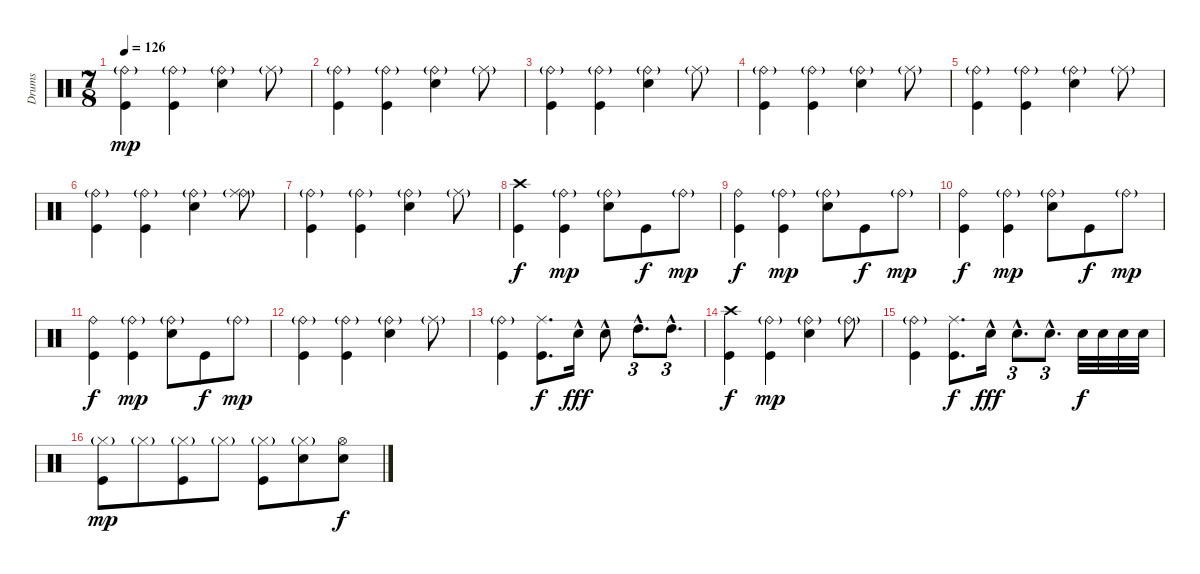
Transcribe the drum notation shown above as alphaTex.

\track ("Drums" "Drums") {instrument percussion}
\staff {score}
\articulation defaults
\ts (7 8)
\tempo 126
\clef neutral
\ks c
("Ride (bell)"{g} "Kick (hit)").4{dy mp} ("Ride (bell)"{g} "Kick (hit)").4 ("Ride (bell)"{g} "Snare (hit) 2").4 "Ride (middle)"{g}.8 |
("Ride (bell)"{g} "Kick (hit)").4 ("Ride (bell)"{g} "Kick (hit)").4 ("Ride (bell)"{g} "Snare (hit) 2").4 "Ride (middle)"{g}.8 |
("Ride (bell)"{g} "Kick (hit)").4 ("Ride (bell)"{g} "Kick (hit)").4 ("Ride (bell)"{g} "Snare (hit) 2").4 "Ride (middle)"{g}.8 |
("Ride (bell)"{g} "Kick (hit)").4 ("Ride (bell)"{g} "Kick (hit)").4 ("Ride (bell)"{g} "Snare (hit) 2").4 "Ride (middle)"{g}.8 |
("Ride (bell)"{g} "Kick (hit)").4 ("Ride (bell)"{g} "Kick (hit)").4 ("Ride (bell)"{g} "Snare (hit) 2").4 "Ride (middle)"{g}.8 |
("Ride (bell)"{g} "Kick (hit)").4 ("Ride (bell)"{g} "Kick (hit)").4 ("Ride (bell)"{g} "Snare (hit) 2").4 ("Ride (bell)"{g} "Ride (middle)").8 |
("Ride (bell)"{g} "Kick (hit)").4 ("Ride (bell)"{g} "Kick (hit)").4 ("Ride (bell)"{g} "Snare (hit) 2").4 "Ride (middle)"{g}.8 |
("Crash high (hit)" "Kick (hit)").4{dy f} ("Ride (bell)"{g} "Kick (hit)").4{dy mp} ("Ride (bell)"{g} "Snare (hit) 2").8 "Kick (hit)".8{dy f} "Ride (bell)"{g}.8{dy mp} |
("Ride (bell)" "Kick (hit)").4{dy f} ("Ride (bell)"{g} "Kick (hit)").4{dy mp} ("Ride (bell)"{g} "Snare (hit) 2").8 "Kick (hit)".8{dy f} "Ride (bell)"{g}.8{dy mp} |
("Ride (bell)" "Kick (hit)").4{dy f} ("Ride (bell)"{g} "Kick (hit)").4{dy mp} ("Ride (bell)"{g} "Snare (hit) 2").8 "Kick (hit)".8{dy f} "Ride (bell)"{g}.8{dy mp} |
("Ride (bell)" "Kick (hit)").4{dy f} ("Ride (bell)"{g} "Kick (hit)").4{dy mp} ("Ride (bell)"{g} "Snare (hit) 2").8 "Kick (hit)".8{dy f} "Ride (bell)"{g}.8{dy mp} |
("Ride (bell)"{g} "Kick (hit)").4 ("Ride (bell)"{g} "Kick (hit)").4 ("Ride (bell)"{g} "Snare (hit) 2").4 "Ride (middle)"{g}.8 |
("Ride (bell)"{g} "Kick (hit)").4 ("Ride (middle)" "Kick (hit)").8{d dy f} "Snare (hit) 2"{hac}.16{dy fff} "Snare (hit) 2"{hac}.8 "High Tom (hit)"{hac}.8{d tu (3 2)} "High Tom (hit)"{hac}.8{d tu (3 2)} |
("Crash high (hit)" "Kick (hit)").4{dy f} ("Ride (bell)"{g} "Kick (hit)").4{dy mp} ("Ride (bell)"{g} "Snare (hit) 2").4 "Ride (bell)"{g}.8 |
("Ride (bell)"{g} "Kick (hit)").4 ("Ride (middle)" "Kick (hit)").8{d dy f} "Snare (hit) 2"{hac}.16{dy fff} "Snare (hit) 2"{hac}.8{d tu (3 2)} "Snare (hit) 2"{hac}.8{d tu (3 2)} "Snare (hit) 2".32{dy f} "Snare (hit) 2".32 "Snare (hit) 2".32 "Snare (hit) 2".32 |
("Hi-Hat (closed)"{g} "Kick (hit)").8{dy mp} "Hi-Hat (closed)"{g}.8 ("Hi-Hat (closed)"{g} "Kick (hit)").8 "Hi-Hat (closed)"{g}.8 ("Hi-Hat (closed)"{g} "Kick (hit)").8 ("Hi-Hat (closed)"{g} "Snare (hit) 2").8 ("Hi-Hat (open)" "Snare (hit) 2").8{dy f}
